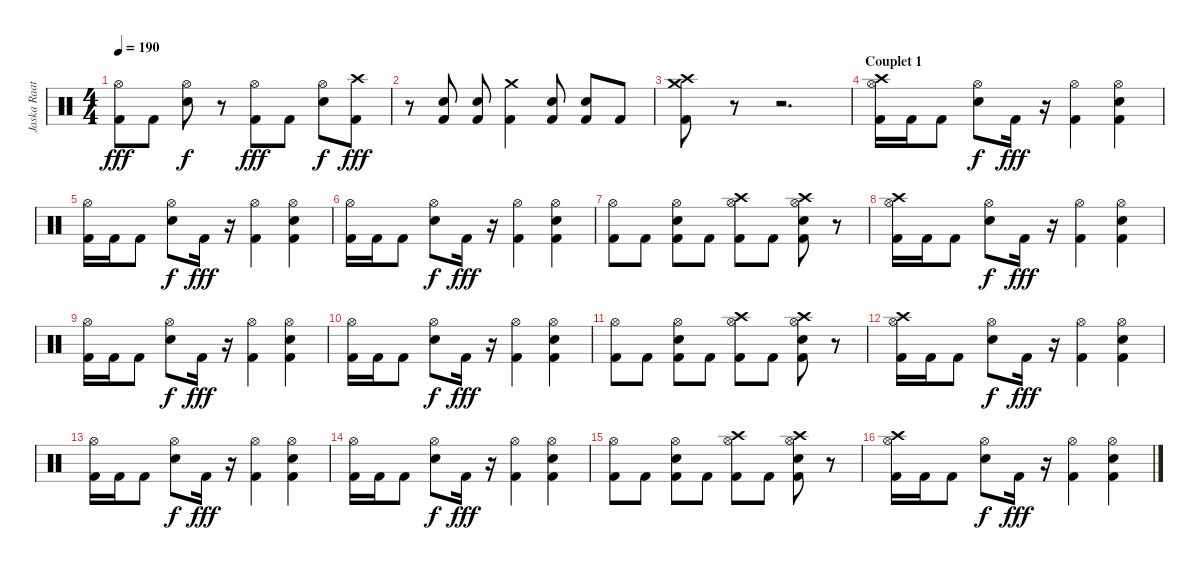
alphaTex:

\track ("Jaska Raatikainen (Drums)" "Jaska Raat") {instrument percussion}
\staff {score}
\articulation defaults
\ts (4 4)
\tempo 190
\clef neutral
\ks c
("Hi-Hat (open)" "Kick (hit) 2").8{dy fff} "Kick (hit) 2".8 ("Hi-Hat (open)" "Electric Snare (hit)").8{dy f} r.8 ("Hi-Hat (open)" "Kick (hit) 2").8{dy fff} "Kick (hit) 2".8 ("Hi-Hat (open)" "Electric Snare (hit)").8{dy f} ("Crash high (hit)" "Kick (hit) 2").8{dy fff} |
r.8 ("Electric Snare (hit)" "Kick (hit) 2").8 ("Electric Snare (hit)" "Kick (hit) 2").8 ("Crash medium (hit)" "Kick (hit) 2").4 ("Electric Snare (hit)" "Kick (hit) 2").8 ("Electric Snare (hit)" "Kick (hit) 2").8 "Kick (hit) 2".8 |
("Crash medium (hit)" "Crash high (hit)" "Kick (hit) 2").8 r.8 r.2{d} |
\section ("" "Couplet 1")
("Hi-Hat (open)" "Crash high (hit)" "Kick (hit) 2").16 "Kick (hit) 2".16 "Kick (hit) 2".8 ("Hi-Hat (open)" "Electric Snare (hit)").8{dy f} "Kick (hit) 2".16{dy fff} r.16 ("Hi-Hat (open)" "Kick (hit) 2").4 ("Hi-Hat (open)" "Electric Snare (hit)" "Kick (hit) 2").4 |
("Hi-Hat (open)" "Kick (hit) 2").16 "Kick (hit) 2".16 "Kick (hit) 2".8 ("Hi-Hat (open)" "Electric Snare (hit)").8{dy f} "Kick (hit) 2".16{dy fff} r.16 ("Hi-Hat (open)" "Kick (hit) 2").4 ("Hi-Hat (open)" "Electric Snare (hit)" "Kick (hit) 2").4 |
("Hi-Hat (open)" "Kick (hit) 2").16 "Kick (hit) 2".16 "Kick (hit) 2".8 ("Hi-Hat (open)" "Electric Snare (hit)").8{dy f} "Kick (hit) 2".16{dy fff} r.16 ("Hi-Hat (open)" "Kick (hit) 2").4 ("Hi-Hat (open)" "Electric Snare (hit)" "Kick (hit) 2").4 |
("Hi-Hat (open)" "Kick (hit) 2").8 "Kick (hit) 2".8 ("Hi-Hat (open)" "Electric Snare (hit)" "Kick (hit) 2").8 "Kick (hit) 2".8 ("Hi-Hat (open)" "Crash high (hit)" "Kick (hit) 2").8 "Kick (hit) 2".8 ("Hi-Hat (open)" "Crash high (hit)" "Electric Snare (hit)" "Kick (hit) 2").8 r.8 |
("Hi-Hat (open)" "Crash high (hit)" "Kick (hit) 2").16 "Kick (hit) 2".16 "Kick (hit) 2".8 ("Hi-Hat (open)" "Electric Snare (hit)").8{dy f} "Kick (hit) 2".16{dy fff} r.16 ("Hi-Hat (open)" "Kick (hit) 2").4 ("Hi-Hat (open)" "Electric Snare (hit)" "Kick (hit) 2").4 |
("Hi-Hat (open)" "Kick (hit) 2").16 "Kick (hit) 2".16 "Kick (hit) 2".8 ("Hi-Hat (open)" "Electric Snare (hit)").8{dy f} "Kick (hit) 2".16{dy fff} r.16 ("Hi-Hat (open)" "Kick (hit) 2").4 ("Hi-Hat (open)" "Electric Snare (hit)" "Kick (hit) 2").4 |
("Hi-Hat (open)" "Kick (hit) 2").16 "Kick (hit) 2".16 "Kick (hit) 2".8 ("Hi-Hat (open)" "Electric Snare (hit)").8{dy f} "Kick (hit) 2".16{dy fff} r.16 ("Hi-Hat (open)" "Kick (hit) 2").4 ("Hi-Hat (open)" "Electric Snare (hit)" "Kick (hit) 2").4 |
("Hi-Hat (open)" "Kick (hit) 2").8 "Kick (hit) 2".8 ("Hi-Hat (open)" "Electric Snare (hit)" "Kick (hit) 2").8 "Kick (hit) 2".8 ("Hi-Hat (open)" "Crash high (hit)" "Kick (hit) 2").8 "Kick (hit) 2".8 ("Hi-Hat (open)" "Crash high (hit)" "Electric Snare (hit)" "Kick (hit) 2").8 r.8 |
("Hi-Hat (open)" "Crash high (hit)" "Kick (hit) 2").16 "Kick (hit) 2".16 "Kick (hit) 2".8 ("Hi-Hat (open)" "Electric Snare (hit)").8{dy f} "Kick (hit) 2".16{dy fff} r.16 ("Hi-Hat (open)" "Kick (hit) 2").4 ("Hi-Hat (open)" "Electric Snare (hit)" "Kick (hit) 2").4 |
("Hi-Hat (open)" "Kick (hit) 2").16 "Kick (hit) 2".16 "Kick (hit) 2".8 ("Hi-Hat (open)" "Electric Snare (hit)").8{dy f} "Kick (hit) 2".16{dy fff} r.16 ("Hi-Hat (open)" "Kick (hit) 2").4 ("Hi-Hat (open)" "Electric Snare (hit)" "Kick (hit) 2").4 |
("Hi-Hat (open)" "Kick (hit) 2").16 "Kick (hit) 2".16 "Kick (hit) 2".8 ("Hi-Hat (open)" "Electric Snare (hit)").8{dy f} "Kick (hit) 2".16{dy fff} r.16 ("Hi-Hat (open)" "Kick (hit) 2").4 ("Hi-Hat (open)" "Electric Snare (hit)" "Kick (hit) 2").4 |
("Hi-Hat (open)" "Kick (hit) 2").8 "Kick (hit) 2".8 ("Hi-Hat (open)" "Electric Snare (hit)" "Kick (hit) 2").8 "Kick (hit) 2".8 ("Hi-Hat (open)" "Crash high (hit)" "Kick (hit) 2").8 "Kick (hit) 2".8 ("Hi-Hat (open)" "Crash high (hit)" "Electric Snare (hit)" "Kick (hit) 2").8 r.8 |
("Hi-Hat (open)" "Crash high (hit)" "Kick (hit) 2").16 "Kick (hit) 2".16 "Kick (hit) 2".8 ("Hi-Hat (open)" "Electric Snare (hit)").8{dy f} "Kick (hit) 2".16{dy fff} r.16 ("Hi-Hat (open)" "Kick (hit) 2").4 ("Hi-Hat (open)" "Electric Snare (hit)" "Kick (hit) 2").4
